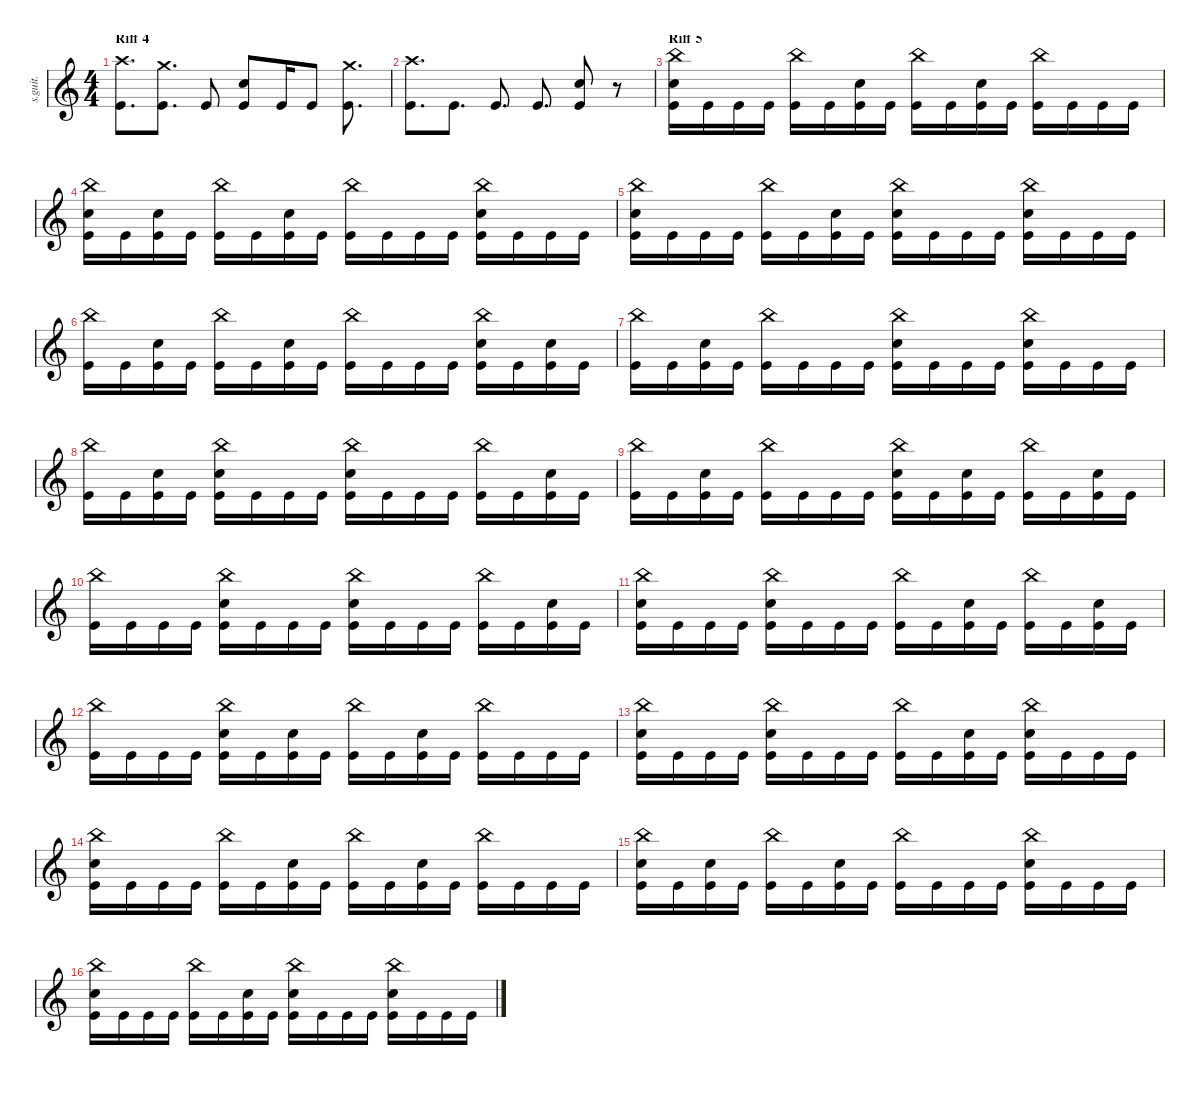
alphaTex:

\defaultSystemsLayout 4
\hideDynamics
\bracketExtendMode nobrackets
\track ("Drumkit" "s.guit.") {instrument percussion}
\staff {score}
\articulation defaults
\ts (4 4)
\section ("" "Riff 4")
\tempo (133 hide)
\clef g2
\ks c
("Crash high (hit)" "Kick (hit)").8{d lyrics (0 "") lyrics (1 "") lyrics (2 "") lyrics (3 "") lyrics (4 "") dy f} ("Crash medium (hit)" "Kick (hit)").8{d lyrics (0 "") lyrics (1 "") lyrics (2 "") lyrics (3 "") lyrics (4 "")} "Kick (hit)".8{lyrics (0 "") lyrics (1 "") lyrics (2 "") lyrics (3 "") lyrics (4 "")} ("Snare (hit) 2" "Kick (hit)").8{lyrics (0 "") lyrics (1 "") lyrics (2 "") lyrics (3 "") lyrics (4 "")} "Kick (hit)".16{lyrics (0 "") lyrics (1 "") lyrics (2 "") lyrics (3 "") lyrics (4 "")} "Kick (hit)".8{lyrics (0 "") lyrics (1 "") lyrics (2 "") lyrics (3 "") lyrics (4 "")} ("Crash medium (hit)" "Kick (hit)").8{d lyrics (0 "") lyrics (1 "") lyrics (2 "") lyrics (3 "") lyrics (4 "")} |
("Crash high (hit)" "Kick (hit)").8{d lyrics (0 "") lyrics (1 "") lyrics (2 "") lyrics (3 "") lyrics (4 "")} "Kick (hit)".8{d lyrics (0 "") lyrics (1 "") lyrics (2 "") lyrics (3 "") lyrics (4 "")} "Kick (hit)".8{d lyrics (0 "") lyrics (1 "") lyrics (2 "") lyrics (3 "") lyrics (4 "")} "Kick (hit)".8{d lyrics (0 "") lyrics (1 "") lyrics (2 "") lyrics (3 "") lyrics (4 "")} ("Snare (hit) 2" "Kick (hit)").8{lyrics (0 "") lyrics (1 "") lyrics (2 "") lyrics (3 "") lyrics (4 "")} r.8 |
\section ("" "Riff 5")
("China (hit)" "Snare (hit) 2" "Kick (hit)").16{lyrics (0 "") lyrics (1 "") lyrics (2 "") lyrics (3 "") lyrics (4 "")} "Kick (hit)".16{lyrics (0 "") lyrics (1 "") lyrics (2 "") lyrics (3 "") lyrics (4 "")} "Kick (hit)".16{lyrics (0 "") lyrics (1 "") lyrics (2 "") lyrics (3 "") lyrics (4 "")} "Kick (hit)".16{lyrics (0 "") lyrics (1 "") lyrics (2 "") lyrics (3 "") lyrics (4 "")} ("China (hit)" "Kick (hit)").16{lyrics (0 "") lyrics (1 "") lyrics (2 "") lyrics (3 "") lyrics (4 "")} "Kick (hit)".16{lyrics (0 "") lyrics (1 "") lyrics (2 "") lyrics (3 "") lyrics (4 "")} ("Snare (hit) 2" "Kick (hit)").16{lyrics (0 "") lyrics (1 "") lyrics (2 "") lyrics (3 "") lyrics (4 "")} "Kick (hit)".16{lyrics (0 "") lyrics (1 "") lyrics (2 "") lyrics (3 "") lyrics (4 "")} ("China (hit)" "Kick (hit)").16{lyrics (0 "") lyrics (1 "") lyrics (2 "") lyrics (3 "") lyrics (4 "")} "Kick (hit)".16{lyrics (0 "") lyrics (1 "") lyrics (2 "") lyrics (3 "") lyrics (4 "")} ("Snare (hit) 2" "Kick (hit)").16{lyrics (0 "") lyrics (1 "") lyrics (2 "") lyrics (3 "") lyrics (4 "")} "Kick (hit)".16{lyrics (0 "") lyrics (1 "") lyrics (2 "") lyrics (3 "") lyrics (4 "")} ("China (hit)" "Kick (hit)").16{lyrics (0 "") lyrics (1 "") lyrics (2 "") lyrics (3 "") lyrics (4 "")} "Kick (hit)".16{lyrics (0 "") lyrics (1 "") lyrics (2 "") lyrics (3 "") lyrics (4 "")} "Kick (hit)".16{lyrics (0 "") lyrics (1 "") lyrics (2 "") lyrics (3 "") lyrics (4 "")} "Kick (hit)".16{lyrics (0 "") lyrics (1 "") lyrics (2 "") lyrics (3 "") lyrics (4 "")} |
("China (hit)" "Snare (hit) 2" "Kick (hit)").16{lyrics (0 "") lyrics (1 "") lyrics (2 "") lyrics (3 "") lyrics (4 "")} "Kick (hit)".16{lyrics (0 "") lyrics (1 "") lyrics (2 "") lyrics (3 "") lyrics (4 "")} ("Snare (hit) 2" "Kick (hit)").16{lyrics (0 "") lyrics (1 "") lyrics (2 "") lyrics (3 "") lyrics (4 "")} "Kick (hit)".16{lyrics (0 "") lyrics (1 "") lyrics (2 "") lyrics (3 "") lyrics (4 "")} ("China (hit)" "Kick (hit)").16{lyrics (0 "") lyrics (1 "") lyrics (2 "") lyrics (3 "") lyrics (4 "")} "Kick (hit)".16{lyrics (0 "") lyrics (1 "") lyrics (2 "") lyrics (3 "") lyrics (4 "")} ("Snare (hit) 2" "Kick (hit)").16{lyrics (0 "") lyrics (1 "") lyrics (2 "") lyrics (3 "") lyrics (4 "")} "Kick (hit)".16{lyrics (0 "") lyrics (1 "") lyrics (2 "") lyrics (3 "") lyrics (4 "")} ("China (hit)" "Kick (hit)").16{lyrics (0 "") lyrics (1 "") lyrics (2 "") lyrics (3 "") lyrics (4 "")} "Kick (hit)".16{lyrics (0 "") lyrics (1 "") lyrics (2 "") lyrics (3 "") lyrics (4 "")} "Kick (hit)".16{lyrics (0 "") lyrics (1 "") lyrics (2 "") lyrics (3 "") lyrics (4 "")} "Kick (hit)".16{lyrics (0 "") lyrics (1 "") lyrics (2 "") lyrics (3 "") lyrics (4 "")} ("China (hit)" "Snare (hit) 2" "Kick (hit)").16{lyrics (0 "") lyrics (1 "") lyrics (2 "") lyrics (3 "") lyrics (4 "")} "Kick (hit)".16{lyrics (0 "") lyrics (1 "") lyrics (2 "") lyrics (3 "") lyrics (4 "")} "Kick (hit)".16{lyrics (0 "") lyrics (1 "") lyrics (2 "") lyrics (3 "") lyrics (4 "")} "Kick (hit)".16{lyrics (0 "") lyrics (1 "") lyrics (2 "") lyrics (3 "") lyrics (4 "")} |
("China (hit)" "Snare (hit) 2" "Kick (hit)").16{lyrics (0 "") lyrics (1 "") lyrics (2 "") lyrics (3 "") lyrics (4 "")} "Kick (hit)".16{lyrics (0 "") lyrics (1 "") lyrics (2 "") lyrics (3 "") lyrics (4 "")} "Kick (hit)".16{lyrics (0 "") lyrics (1 "") lyrics (2 "") lyrics (3 "") lyrics (4 "")} "Kick (hit)".16{lyrics (0 "") lyrics (1 "") lyrics (2 "") lyrics (3 "") lyrics (4 "")} ("China (hit)" "Kick (hit)").16{lyrics (0 "") lyrics (1 "") lyrics (2 "") lyrics (3 "") lyrics (4 "")} "Kick (hit)".16{lyrics (0 "") lyrics (1 "") lyrics (2 "") lyrics (3 "") lyrics (4 "")} ("Snare (hit) 2" "Kick (hit)").16{lyrics (0 "") lyrics (1 "") lyrics (2 "") lyrics (3 "") lyrics (4 "")} "Kick (hit)".16{lyrics (0 "") lyrics (1 "") lyrics (2 "") lyrics (3 "") lyrics (4 "")} ("China (hit)" "Snare (hit) 2" "Kick (hit)").16{lyrics (0 "") lyrics (1 "") lyrics (2 "") lyrics (3 "") lyrics (4 "")} "Kick (hit)".16{lyrics (0 "") lyrics (1 "") lyrics (2 "") lyrics (3 "") lyrics (4 "")} "Kick (hit)".16{lyrics (0 "") lyrics (1 "") lyrics (2 "") lyrics (3 "") lyrics (4 "")} "Kick (hit)".16{lyrics (0 "") lyrics (1 "") lyrics (2 "") lyrics (3 "") lyrics (4 "")} ("China (hit)" "Snare (hit) 2" "Kick (hit)").16{lyrics (0 "") lyrics (1 "") lyrics (2 "") lyrics (3 "") lyrics (4 "")} "Kick (hit)".16{lyrics (0 "") lyrics (1 "") lyrics (2 "") lyrics (3 "") lyrics (4 "")} "Kick (hit)".16{lyrics (0 "") lyrics (1 "") lyrics (2 "") lyrics (3 "") lyrics (4 "")} "Kick (hit)".16{lyrics (0 "") lyrics (1 "") lyrics (2 "") lyrics (3 "") lyrics (4 "")} |
("China (hit)" "Kick (hit)").16{lyrics (0 "") lyrics (1 "") lyrics (2 "") lyrics (3 "") lyrics (4 "")} "Kick (hit)".16{lyrics (0 "") lyrics (1 "") lyrics (2 "") lyrics (3 "") lyrics (4 "")} ("Snare (hit) 2" "Kick (hit)").16{lyrics (0 "") lyrics (1 "") lyrics (2 "") lyrics (3 "") lyrics (4 "")} "Kick (hit)".16{lyrics (0 "") lyrics (1 "") lyrics (2 "") lyrics (3 "") lyrics (4 "")} ("China (hit)" "Kick (hit)").16{lyrics (0 "") lyrics (1 "") lyrics (2 "") lyrics (3 "") lyrics (4 "")} "Kick (hit)".16{lyrics (0 "") lyrics (1 "") lyrics (2 "") lyrics (3 "") lyrics (4 "")} ("Snare (hit) 2" "Kick (hit)").16{lyrics (0 "") lyrics (1 "") lyrics (2 "") lyrics (3 "") lyrics (4 "")} "Kick (hit)".16{lyrics (0 "") lyrics (1 "") lyrics (2 "") lyrics (3 "") lyrics (4 "")} ("China (hit)" "Kick (hit)").16{lyrics (0 "") lyrics (1 "") lyrics (2 "") lyrics (3 "") lyrics (4 "")} "Kick (hit)".16{lyrics (0 "") lyrics (1 "") lyrics (2 "") lyrics (3 "") lyrics (4 "")} "Kick (hit)".16{lyrics (0 "") lyrics (1 "") lyrics (2 "") lyrics (3 "") lyrics (4 "")} "Kick (hit)".16{lyrics (0 "") lyrics (1 "") lyrics (2 "") lyrics (3 "") lyrics (4 "")} ("China (hit)" "Snare (hit) 2" "Kick (hit)").16{lyrics (0 "") lyrics (1 "") lyrics (2 "") lyrics (3 "") lyrics (4 "")} "Kick (hit)".16{lyrics (0 "") lyrics (1 "") lyrics (2 "") lyrics (3 "") lyrics (4 "")} ("Snare (hit) 2" "Kick (hit)").16{lyrics (0 "") lyrics (1 "") lyrics (2 "") lyrics (3 "") lyrics (4 "")} "Kick (hit)".16{lyrics (0 "") lyrics (1 "") lyrics (2 "") lyrics (3 "") lyrics (4 "")} |
("China (hit)" "Kick (hit)").16{lyrics (0 "") lyrics (1 "") lyrics (2 "") lyrics (3 "") lyrics (4 "")} "Kick (hit)".16{lyrics (0 "") lyrics (1 "") lyrics (2 "") lyrics (3 "") lyrics (4 "")} ("Snare (hit) 2" "Kick (hit)").16{lyrics (0 "") lyrics (1 "") lyrics (2 "") lyrics (3 "") lyrics (4 "")} "Kick (hit)".16{lyrics (0 "") lyrics (1 "") lyrics (2 "") lyrics (3 "") lyrics (4 "")} ("China (hit)" "Kick (hit)").16{lyrics (0 "") lyrics (1 "") lyrics (2 "") lyrics (3 "") lyrics (4 "")} "Kick (hit)".16{lyrics (0 "") lyrics (1 "") lyrics (2 "") lyrics (3 "") lyrics (4 "")} "Kick (hit)".16{lyrics (0 "") lyrics (1 "") lyrics (2 "") lyrics (3 "") lyrics (4 "")} "Kick (hit)".16{lyrics (0 "") lyrics (1 "") lyrics (2 "") lyrics (3 "") lyrics (4 "")} ("China (hit)" "Snare (hit) 2" "Kick (hit)").16{lyrics (0 "") lyrics (1 "") lyrics (2 "") lyrics (3 "") lyrics (4 "")} "Kick (hit)".16{lyrics (0 "") lyrics (1 "") lyrics (2 "") lyrics (3 "") lyrics (4 "")} "Kick (hit)".16{lyrics (0 "") lyrics (1 "") lyrics (2 "") lyrics (3 "") lyrics (4 "")} "Kick (hit)".16{lyrics (0 "") lyrics (1 "") lyrics (2 "") lyrics (3 "") lyrics (4 "")} ("China (hit)" "Snare (hit) 2" "Kick (hit)").16{lyrics (0 "") lyrics (1 "") lyrics (2 "") lyrics (3 "") lyrics (4 "")} "Kick (hit)".16{lyrics (0 "") lyrics (1 "") lyrics (2 "") lyrics (3 "") lyrics (4 "")} "Kick (hit)".16{lyrics (0 "") lyrics (1 "") lyrics (2 "") lyrics (3 "") lyrics (4 "")} "Kick (hit)".16{lyrics (0 "") lyrics (1 "") lyrics (2 "") lyrics (3 "") lyrics (4 "")} |
("China (hit)" "Kick (hit)").16{lyrics (0 "") lyrics (1 "") lyrics (2 "") lyrics (3 "") lyrics (4 "")} "Kick (hit)".16{lyrics (0 "") lyrics (1 "") lyrics (2 "") lyrics (3 "") lyrics (4 "")} ("Snare (hit) 2" "Kick (hit)").16{lyrics (0 "") lyrics (1 "") lyrics (2 "") lyrics (3 "") lyrics (4 "")} "Kick (hit)".16{lyrics (0 "") lyrics (1 "") lyrics (2 "") lyrics (3 "") lyrics (4 "")} ("China (hit)" "Snare (hit) 2" "Kick (hit)").16{lyrics (0 "") lyrics (1 "") lyrics (2 "") lyrics (3 "") lyrics (4 "")} "Kick (hit)".16{lyrics (0 "") lyrics (1 "") lyrics (2 "") lyrics (3 "") lyrics (4 "")} "Kick (hit)".16{lyrics (0 "") lyrics (1 "") lyrics (2 "") lyrics (3 "") lyrics (4 "")} "Kick (hit)".16{lyrics (0 "") lyrics (1 "") lyrics (2 "") lyrics (3 "") lyrics (4 "")} ("China (hit)" "Snare (hit) 2" "Kick (hit)").16{lyrics (0 "") lyrics (1 "") lyrics (2 "") lyrics (3 "") lyrics (4 "")} "Kick (hit)".16{lyrics (0 "") lyrics (1 "") lyrics (2 "") lyrics (3 "") lyrics (4 "")} "Kick (hit)".16{lyrics (0 "") lyrics (1 "") lyrics (2 "") lyrics (3 "") lyrics (4 "")} "Kick (hit)".16{lyrics (0 "") lyrics (1 "") lyrics (2 "") lyrics (3 "") lyrics (4 "")} ("China (hit)" "Kick (hit)").16{lyrics (0 "") lyrics (1 "") lyrics (2 "") lyrics (3 "") lyrics (4 "")} "Kick (hit)".16{lyrics (0 "") lyrics (1 "") lyrics (2 "") lyrics (3 "") lyrics (4 "")} ("Snare (hit) 2" "Kick (hit)").16{lyrics (0 "") lyrics (1 "") lyrics (2 "") lyrics (3 "") lyrics (4 "")} "Kick (hit)".16{lyrics (0 "") lyrics (1 "") lyrics (2 "") lyrics (3 "") lyrics (4 "")} |
("China (hit)" "Kick (hit)").16{lyrics (0 "") lyrics (1 "") lyrics (2 "") lyrics (3 "") lyrics (4 "")} "Kick (hit)".16{lyrics (0 "") lyrics (1 "") lyrics (2 "") lyrics (3 "") lyrics (4 "")} ("Snare (hit) 2" "Kick (hit)").16{lyrics (0 "") lyrics (1 "") lyrics (2 "") lyrics (3 "") lyrics (4 "")} "Kick (hit)".16{lyrics (0 "") lyrics (1 "") lyrics (2 "") lyrics (3 "") lyrics (4 "")} ("China (hit)" "Kick (hit)").16{lyrics (0 "") lyrics (1 "") lyrics (2 "") lyrics (3 "") lyrics (4 "")} "Kick (hit)".16{lyrics (0 "") lyrics (1 "") lyrics (2 "") lyrics (3 "") lyrics (4 "")} "Kick (hit)".16{lyrics (0 "") lyrics (1 "") lyrics (2 "") lyrics (3 "") lyrics (4 "")} "Kick (hit)".16{lyrics (0 "") lyrics (1 "") lyrics (2 "") lyrics (3 "") lyrics (4 "")} ("China (hit)" "Snare (hit) 2" "Kick (hit)").16{lyrics (0 "") lyrics (1 "") lyrics (2 "") lyrics (3 "") lyrics (4 "")} "Kick (hit)".16{lyrics (0 "") lyrics (1 "") lyrics (2 "") lyrics (3 "") lyrics (4 "")} ("Snare (hit) 2" "Kick (hit)").16{lyrics (0 "") lyrics (1 "") lyrics (2 "") lyrics (3 "") lyrics (4 "")} "Kick (hit)".16{lyrics (0 "") lyrics (1 "") lyrics (2 "") lyrics (3 "") lyrics (4 "")} ("China (hit)" "Kick (hit)").16{lyrics (0 "") lyrics (1 "") lyrics (2 "") lyrics (3 "") lyrics (4 "")} "Kick (hit)".16{lyrics (0 "") lyrics (1 "") lyrics (2 "") lyrics (3 "") lyrics (4 "")} ("Snare (hit) 2" "Kick (hit)").16{lyrics (0 "") lyrics (1 "") lyrics (2 "") lyrics (3 "") lyrics (4 "")} "Kick (hit)".16{lyrics (0 "") lyrics (1 "") lyrics (2 "") lyrics (3 "") lyrics (4 "")} |
("China (hit)" "Kick (hit)").16{lyrics (0 "") lyrics (1 "") lyrics (2 "") lyrics (3 "") lyrics (4 "")} "Kick (hit)".16{lyrics (0 "") lyrics (1 "") lyrics (2 "") lyrics (3 "") lyrics (4 "")} "Kick (hit)".16{lyrics (0 "") lyrics (1 "") lyrics (2 "") lyrics (3 "") lyrics (4 "")} "Kick (hit)".16{lyrics (0 "") lyrics (1 "") lyrics (2 "") lyrics (3 "") lyrics (4 "")} ("China (hit)" "Snare (hit) 2" "Kick (hit)").16{lyrics (0 "") lyrics (1 "") lyrics (2 "") lyrics (3 "") lyrics (4 "")} "Kick (hit)".16{lyrics (0 "") lyrics (1 "") lyrics (2 "") lyrics (3 "") lyrics (4 "")} "Kick (hit)".16{lyrics (0 "") lyrics (1 "") lyrics (2 "") lyrics (3 "") lyrics (4 "")} "Kick (hit)".16{lyrics (0 "") lyrics (1 "") lyrics (2 "") lyrics (3 "") lyrics (4 "")} ("China (hit)" "Snare (hit) 2" "Kick (hit)").16{lyrics (0 "") lyrics (1 "") lyrics (2 "") lyrics (3 "") lyrics (4 "")} "Kick (hit)".16{lyrics (0 "") lyrics (1 "") lyrics (2 "") lyrics (3 "") lyrics (4 "")} "Kick (hit)".16{lyrics (0 "") lyrics (1 "") lyrics (2 "") lyrics (3 "") lyrics (4 "")} "Kick (hit)".16{lyrics (0 "") lyrics (1 "") lyrics (2 "") lyrics (3 "") lyrics (4 "")} ("China (hit)" "Kick (hit)").16{lyrics (0 "") lyrics (1 "") lyrics (2 "") lyrics (3 "") lyrics (4 "")} "Kick (hit)".16{lyrics (0 "") lyrics (1 "") lyrics (2 "") lyrics (3 "") lyrics (4 "")} ("Snare (hit) 2" "Kick (hit)").16{lyrics (0 "") lyrics (1 "") lyrics (2 "") lyrics (3 "") lyrics (4 "")} "Kick (hit)".16{lyrics (0 "") lyrics (1 "") lyrics (2 "") lyrics (3 "") lyrics (4 "")} |
("China (hit)" "Snare (hit) 2" "Kick (hit)").16{lyrics (0 "") lyrics (1 "") lyrics (2 "") lyrics (3 "") lyrics (4 "")} "Kick (hit)".16{lyrics (0 "") lyrics (1 "") lyrics (2 "") lyrics (3 "") lyrics (4 "")} "Kick (hit)".16{lyrics (0 "") lyrics (1 "") lyrics (2 "") lyrics (3 "") lyrics (4 "")} "Kick (hit)".16{lyrics (0 "") lyrics (1 "") lyrics (2 "") lyrics (3 "") lyrics (4 "")} ("China (hit)" "Snare (hit) 2" "Kick (hit)").16{lyrics (0 "") lyrics (1 "") lyrics (2 "") lyrics (3 "") lyrics (4 "")} "Kick (hit)".16{lyrics (0 "") lyrics (1 "") lyrics (2 "") lyrics (3 "") lyrics (4 "")} "Kick (hit)".16{lyrics (0 "") lyrics (1 "") lyrics (2 "") lyrics (3 "") lyrics (4 "")} "Kick (hit)".16{lyrics (0 "") lyrics (1 "") lyrics (2 "") lyrics (3 "") lyrics (4 "")} ("China (hit)" "Kick (hit)").16{lyrics (0 "") lyrics (1 "") lyrics (2 "") lyrics (3 "") lyrics (4 "")} "Kick (hit)".16{lyrics (0 "") lyrics (1 "") lyrics (2 "") lyrics (3 "") lyrics (4 "")} ("Snare (hit) 2" "Kick (hit)").16{lyrics (0 "") lyrics (1 "") lyrics (2 "") lyrics (3 "") lyrics (4 "")} "Kick (hit)".16{lyrics (0 "") lyrics (1 "") lyrics (2 "") lyrics (3 "") lyrics (4 "")} ("China (hit)" "Kick (hit)").16{lyrics (0 "") lyrics (1 "") lyrics (2 "") lyrics (3 "") lyrics (4 "")} "Kick (hit)".16{lyrics (0 "") lyrics (1 "") lyrics (2 "") lyrics (3 "") lyrics (4 "")} ("Snare (hit) 2" "Kick (hit)").16{lyrics (0 "") lyrics (1 "") lyrics (2 "") lyrics (3 "") lyrics (4 "")} "Kick (hit)".16{lyrics (0 "") lyrics (1 "") lyrics (2 "") lyrics (3 "") lyrics (4 "")} |
("China (hit)" "Kick (hit)").16{lyrics (0 "") lyrics (1 "") lyrics (2 "") lyrics (3 "") lyrics (4 "")} "Kick (hit)".16{lyrics (0 "") lyrics (1 "") lyrics (2 "") lyrics (3 "") lyrics (4 "")} "Kick (hit)".16{lyrics (0 "") lyrics (1 "") lyrics (2 "") lyrics (3 "") lyrics (4 "")} "Kick (hit)".16{lyrics (0 "") lyrics (1 "") lyrics (2 "") lyrics (3 "") lyrics (4 "")} ("China (hit)" "Snare (hit) 2" "Kick (hit)").16{lyrics (0 "") lyrics (1 "") lyrics (2 "") lyrics (3 "") lyrics (4 "")} "Kick (hit)".16{lyrics (0 "") lyrics (1 "") lyrics (2 "") lyrics (3 "") lyrics (4 "")} ("Snare (hit) 2" "Kick (hit)").16{lyrics (0 "") lyrics (1 "") lyrics (2 "") lyrics (3 "") lyrics (4 "")} "Kick (hit)".16{lyrics (0 "") lyrics (1 "") lyrics (2 "") lyrics (3 "") lyrics (4 "")} ("China (hit)" "Kick (hit)").16{lyrics (0 "") lyrics (1 "") lyrics (2 "") lyrics (3 "") lyrics (4 "")} "Kick (hit)".16{lyrics (0 "") lyrics (1 "") lyrics (2 "") lyrics (3 "") lyrics (4 "")} ("Snare (hit) 2" "Kick (hit)").16{lyrics (0 "") lyrics (1 "") lyrics (2 "") lyrics (3 "") lyrics (4 "")} "Kick (hit)".16{lyrics (0 "") lyrics (1 "") lyrics (2 "") lyrics (3 "") lyrics (4 "")} ("China (hit)" "Kick (hit)").16{lyrics (0 "") lyrics (1 "") lyrics (2 "") lyrics (3 "") lyrics (4 "")} "Kick (hit)".16{lyrics (0 "") lyrics (1 "") lyrics (2 "") lyrics (3 "") lyrics (4 "")} "Kick (hit)".16{lyrics (0 "") lyrics (1 "") lyrics (2 "") lyrics (3 "") lyrics (4 "")} "Kick (hit)".16{lyrics (0 "") lyrics (1 "") lyrics (2 "") lyrics (3 "") lyrics (4 "")} |
("China (hit)" "Snare (hit) 2" "Kick (hit)").16{lyrics (0 "") lyrics (1 "") lyrics (2 "") lyrics (3 "") lyrics (4 "")} "Kick (hit)".16{lyrics (0 "") lyrics (1 "") lyrics (2 "") lyrics (3 "") lyrics (4 "")} "Kick (hit)".16{lyrics (0 "") lyrics (1 "") lyrics (2 "") lyrics (3 "") lyrics (4 "")} "Kick (hit)".16{lyrics (0 "") lyrics (1 "") lyrics (2 "") lyrics (3 "") lyrics (4 "")} ("China (hit)" "Snare (hit) 2" "Kick (hit)").16{lyrics (0 "") lyrics (1 "") lyrics (2 "") lyrics (3 "") lyrics (4 "")} "Kick (hit)".16{lyrics (0 "") lyrics (1 "") lyrics (2 "") lyrics (3 "") lyrics (4 "")} "Kick (hit)".16{lyrics (0 "") lyrics (1 "") lyrics (2 "") lyrics (3 "") lyrics (4 "")} "Kick (hit)".16{lyrics (0 "") lyrics (1 "") lyrics (2 "") lyrics (3 "") lyrics (4 "")} ("China (hit)" "Kick (hit)").16{lyrics (0 "") lyrics (1 "") lyrics (2 "") lyrics (3 "") lyrics (4 "")} "Kick (hit)".16{lyrics (0 "") lyrics (1 "") lyrics (2 "") lyrics (3 "") lyrics (4 "")} ("Snare (hit) 2" "Kick (hit)").16{lyrics (0 "") lyrics (1 "") lyrics (2 "") lyrics (3 "") lyrics (4 "")} "Kick (hit)".16{lyrics (0 "") lyrics (1 "") lyrics (2 "") lyrics (3 "") lyrics (4 "")} ("China (hit)" "Snare (hit) 2" "Kick (hit)").16{lyrics (0 "") lyrics (1 "") lyrics (2 "") lyrics (3 "") lyrics (4 "")} "Kick (hit)".16{lyrics (0 "") lyrics (1 "") lyrics (2 "") lyrics (3 "") lyrics (4 "")} "Kick (hit)".16{lyrics (0 "") lyrics (1 "") lyrics (2 "") lyrics (3 "") lyrics (4 "")} "Kick (hit)".16{lyrics (0 "") lyrics (1 "") lyrics (2 "") lyrics (3 "") lyrics (4 "")} |
("China (hit)" "Snare (hit) 2" "Kick (hit)").16{lyrics (0 "") lyrics (1 "") lyrics (2 "") lyrics (3 "") lyrics (4 "")} "Kick (hit)".16{lyrics (0 "") lyrics (1 "") lyrics (2 "") lyrics (3 "") lyrics (4 "")} "Kick (hit)".16{lyrics (0 "") lyrics (1 "") lyrics (2 "") lyrics (3 "") lyrics (4 "")} "Kick (hit)".16{lyrics (0 "") lyrics (1 "") lyrics (2 "") lyrics (3 "") lyrics (4 "")} ("China (hit)" "Kick (hit)").16{lyrics (0 "") lyrics (1 "") lyrics (2 "") lyrics (3 "") lyrics (4 "")} "Kick (hit)".16{lyrics (0 "") lyrics (1 "") lyrics (2 "") lyrics (3 "") lyrics (4 "")} ("Snare (hit) 2" "Kick (hit)").16{lyrics (0 "") lyrics (1 "") lyrics (2 "") lyrics (3 "") lyrics (4 "")} "Kick (hit)".16{lyrics (0 "") lyrics (1 "") lyrics (2 "") lyrics (3 "") lyrics (4 "")} ("China (hit)" "Kick (hit)").16{lyrics (0 "") lyrics (1 "") lyrics (2 "") lyrics (3 "") lyrics (4 "")} "Kick (hit)".16{lyrics (0 "") lyrics (1 "") lyrics (2 "") lyrics (3 "") lyrics (4 "")} ("Snare (hit) 2" "Kick (hit)").16{lyrics (0 "") lyrics (1 "") lyrics (2 "") lyrics (3 "") lyrics (4 "")} "Kick (hit)".16{lyrics (0 "") lyrics (1 "") lyrics (2 "") lyrics (3 "") lyrics (4 "")} ("China (hit)" "Kick (hit)").16{lyrics (0 "") lyrics (1 "") lyrics (2 "") lyrics (3 "") lyrics (4 "")} "Kick (hit)".16{lyrics (0 "") lyrics (1 "") lyrics (2 "") lyrics (3 "") lyrics (4 "")} "Kick (hit)".16{lyrics (0 "") lyrics (1 "") lyrics (2 "") lyrics (3 "") lyrics (4 "")} "Kick (hit)".16{lyrics (0 "") lyrics (1 "") lyrics (2 "") lyrics (3 "") lyrics (4 "")} |
("China (hit)" "Snare (hit) 2" "Kick (hit)").16{lyrics (0 "") lyrics (1 "") lyrics (2 "") lyrics (3 "") lyrics (4 "")} "Kick (hit)".16{lyrics (0 "") lyrics (1 "") lyrics (2 "") lyrics (3 "") lyrics (4 "")} ("Snare (hit) 2" "Kick (hit)").16{lyrics (0 "") lyrics (1 "") lyrics (2 "") lyrics (3 "") lyrics (4 "")} "Kick (hit)".16{lyrics (0 "") lyrics (1 "") lyrics (2 "") lyrics (3 "") lyrics (4 "")} ("China (hit)" "Kick (hit)").16{lyrics (0 "") lyrics (1 "") lyrics (2 "") lyrics (3 "") lyrics (4 "")} "Kick (hit)".16{lyrics (0 "") lyrics (1 "") lyrics (2 "") lyrics (3 "") lyrics (4 "")} ("Snare (hit) 2" "Kick (hit)").16{lyrics (0 "") lyrics (1 "") lyrics (2 "") lyrics (3 "") lyrics (4 "")} "Kick (hit)".16{lyrics (0 "") lyrics (1 "") lyrics (2 "") lyrics (3 "") lyrics (4 "")} ("China (hit)" "Kick (hit)").16{lyrics (0 "") lyrics (1 "") lyrics (2 "") lyrics (3 "") lyrics (4 "")} "Kick (hit)".16{lyrics (0 "") lyrics (1 "") lyrics (2 "") lyrics (3 "") lyrics (4 "")} "Kick (hit)".16{lyrics (0 "") lyrics (1 "") lyrics (2 "") lyrics (3 "") lyrics (4 "")} "Kick (hit)".16{lyrics (0 "") lyrics (1 "") lyrics (2 "") lyrics (3 "") lyrics (4 "")} ("China (hit)" "Snare (hit) 2" "Kick (hit)").16{lyrics (0 "") lyrics (1 "") lyrics (2 "") lyrics (3 "") lyrics (4 "")} "Kick (hit)".16{lyrics (0 "") lyrics (1 "") lyrics (2 "") lyrics (3 "") lyrics (4 "")} "Kick (hit)".16{lyrics (0 "") lyrics (1 "") lyrics (2 "") lyrics (3 "") lyrics (4 "")} "Kick (hit)".16{lyrics (0 "") lyrics (1 "") lyrics (2 "") lyrics (3 "") lyrics (4 "")} |
("China (hit)" "Snare (hit) 2" "Kick (hit)").16{lyrics (0 "") lyrics (1 "") lyrics (2 "") lyrics (3 "") lyrics (4 "")} "Kick (hit)".16{lyrics (0 "") lyrics (1 "") lyrics (2 "") lyrics (3 "") lyrics (4 "")} "Kick (hit)".16{lyrics (0 "") lyrics (1 "") lyrics (2 "") lyrics (3 "") lyrics (4 "")} "Kick (hit)".16{lyrics (0 "") lyrics (1 "") lyrics (2 "") lyrics (3 "") lyrics (4 "")} ("China (hit)" "Kick (hit)").16{lyrics (0 "") lyrics (1 "") lyrics (2 "") lyrics (3 "") lyrics (4 "")} "Kick (hit)".16{lyrics (0 "") lyrics (1 "") lyrics (2 "") lyrics (3 "") lyrics (4 "")} ("Snare (hit) 2" "Kick (hit)").16{lyrics (0 "") lyrics (1 "") lyrics (2 "") lyrics (3 "") lyrics (4 "")} "Kick (hit)".16{lyrics (0 "") lyrics (1 "") lyrics (2 "") lyrics (3 "") lyrics (4 "")} ("China (hit)" "Snare (hit) 2" "Kick (hit)").16{lyrics (0 "") lyrics (1 "") lyrics (2 "") lyrics (3 "") lyrics (4 "")} "Kick (hit)".16{lyrics (0 "") lyrics (1 "") lyrics (2 "") lyrics (3 "") lyrics (4 "")} "Kick (hit)".16{lyrics (0 "") lyrics (1 "") lyrics (2 "") lyrics (3 "") lyrics (4 "")} "Kick (hit)".16{lyrics (0 "") lyrics (1 "") lyrics (2 "") lyrics (3 "") lyrics (4 "")} ("China (hit)" "Snare (hit) 2" "Kick (hit)").16{lyrics (0 "") lyrics (1 "") lyrics (2 "") lyrics (3 "") lyrics (4 "")} "Kick (hit)".16{lyrics (0 "") lyrics (1 "") lyrics (2 "") lyrics (3 "") lyrics (4 "")} "Kick (hit)".16{lyrics (0 "") lyrics (1 "") lyrics (2 "") lyrics (3 "") lyrics (4 "")} "Kick (hit)".16{lyrics (0 "") lyrics (1 "") lyrics (2 "") lyrics (3 "") lyrics (4 "")}
